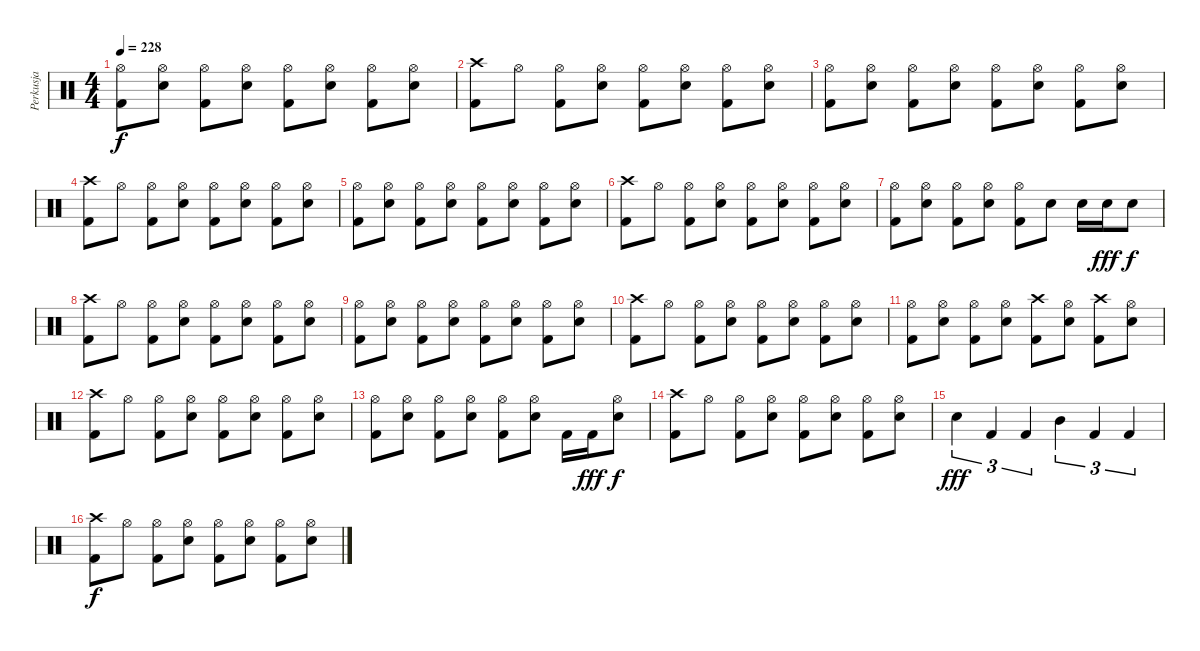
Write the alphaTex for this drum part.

\track ("Perkusja" "Perkusja") {instrument percussion bank 10}
\staff {score}
\articulation defaults
\ts (4 4)
\tempo 228
\clef neutral
\ks c
("Hi-Hat (open)" "Kick (hit) 2").8{dy f} ("Hi-Hat (open)" "Snare (hit) 2").8 ("Hi-Hat (open)" "Kick (hit) 2").8 ("Hi-Hat (open)" "Snare (hit) 2").8 ("Hi-Hat (open)" "Kick (hit) 2").8 ("Hi-Hat (open)" "Snare (hit) 2").8 ("Hi-Hat (open)" "Kick (hit) 2").8 ("Hi-Hat (open)" "Snare (hit) 2").8 |
("Crash high (hit)" "Kick (hit) 2").8 "Hi-Hat (open)".8 ("Hi-Hat (open)" "Kick (hit) 2").8 ("Hi-Hat (open)" "Snare (hit) 2").8 ("Hi-Hat (open)" "Kick (hit) 2").8 ("Hi-Hat (open)" "Snare (hit) 2").8 ("Hi-Hat (open)" "Kick (hit) 2").8 ("Hi-Hat (open)" "Snare (hit) 2").8 |
("Hi-Hat (open)" "Kick (hit) 2").8 ("Hi-Hat (open)" "Snare (hit) 2").8 ("Hi-Hat (open)" "Kick (hit) 2").8 ("Hi-Hat (open)" "Snare (hit) 2").8 ("Hi-Hat (open)" "Kick (hit) 2").8 ("Hi-Hat (open)" "Snare (hit) 2").8 ("Hi-Hat (open)" "Kick (hit) 2").8 ("Hi-Hat (open)" "Snare (hit) 2").8 |
("Crash high (hit)" "Kick (hit) 2").8 "Hi-Hat (open)".8 ("Hi-Hat (open)" "Kick (hit) 2").8 ("Hi-Hat (open)" "Snare (hit) 2").8 ("Hi-Hat (open)" "Kick (hit) 2").8 ("Hi-Hat (open)" "Snare (hit) 2").8 ("Hi-Hat (open)" "Kick (hit) 2").8 ("Hi-Hat (open)" "Snare (hit) 2").8 |
("Hi-Hat (open)" "Kick (hit) 2").8 ("Hi-Hat (open)" "Snare (hit) 2").8 ("Hi-Hat (open)" "Kick (hit) 2").8 ("Hi-Hat (open)" "Snare (hit) 2").8 ("Hi-Hat (open)" "Kick (hit) 2").8 ("Hi-Hat (open)" "Snare (hit) 2").8 ("Hi-Hat (open)" "Kick (hit) 2").8 ("Hi-Hat (open)" "Snare (hit) 2").8 |
("Crash high (hit)" "Kick (hit) 2").8 "Hi-Hat (open)".8 ("Hi-Hat (open)" "Kick (hit) 2").8 ("Hi-Hat (open)" "Snare (hit) 2").8 ("Hi-Hat (open)" "Kick (hit) 2").8 ("Hi-Hat (open)" "Snare (hit) 2").8 ("Hi-Hat (open)" "Kick (hit) 2").8 ("Hi-Hat (open)" "Snare (hit) 2").8 |
("Hi-Hat (open)" "Kick (hit) 2").8 ("Hi-Hat (open)" "Snare (hit) 2").8 ("Hi-Hat (open)" "Kick (hit) 2").8 ("Hi-Hat (open)" "Snare (hit) 2").8 ("Hi-Hat (open)" "Kick (hit) 2").8 "Snare (hit) 2".8 "Snare (hit) 2".16 "Snare (hit) 2".16{dy fff} "Snare (hit) 2".8{dy f} |
("Crash high (hit)" "Kick (hit) 2").8 "Hi-Hat (open)".8 ("Hi-Hat (open)" "Kick (hit) 2").8 ("Hi-Hat (open)" "Snare (hit) 2").8 ("Hi-Hat (open)" "Kick (hit) 2").8 ("Hi-Hat (open)" "Snare (hit) 2").8 ("Hi-Hat (open)" "Kick (hit) 2").8 ("Hi-Hat (open)" "Snare (hit) 2").8 |
("Hi-Hat (open)" "Kick (hit) 2").8 ("Hi-Hat (open)" "Snare (hit) 2").8 ("Hi-Hat (open)" "Kick (hit) 2").8 ("Hi-Hat (open)" "Snare (hit) 2").8 ("Hi-Hat (open)" "Kick (hit) 2").8 ("Hi-Hat (open)" "Snare (hit) 2").8 ("Hi-Hat (open)" "Kick (hit) 2").8 ("Hi-Hat (open)" "Snare (hit) 2").8 |
("Crash high (hit)" "Kick (hit) 2").8 "Hi-Hat (open)".8 ("Hi-Hat (open)" "Kick (hit) 2").8 ("Hi-Hat (open)" "Snare (hit) 2").8 ("Hi-Hat (open)" "Kick (hit) 2").8 ("Hi-Hat (open)" "Snare (hit) 2").8 ("Hi-Hat (open)" "Kick (hit) 2").8 ("Hi-Hat (open)" "Snare (hit) 2").8 |
("Hi-Hat (open)" "Kick (hit) 2").8 ("Hi-Hat (open)" "Snare (hit) 2").8 ("Hi-Hat (open)" "Kick (hit) 2").8 ("Hi-Hat (open)" "Snare (hit) 2").8 ("Crash high (hit)" "Kick (hit) 2").8 ("Hi-Hat (open)" "Snare (hit) 2").8 ("Crash high (hit)" "Kick (hit) 2").8 ("Hi-Hat (open)" "Snare (hit) 2").8 |
("Crash high (hit)" "Kick (hit) 2").8 "Hi-Hat (open)".8 ("Hi-Hat (open)" "Kick (hit) 2").8 ("Hi-Hat (open)" "Snare (hit) 2").8 ("Hi-Hat (open)" "Kick (hit) 2").8 ("Hi-Hat (open)" "Snare (hit) 2").8 ("Hi-Hat (open)" "Kick (hit) 2").8 ("Hi-Hat (open)" "Snare (hit) 2").8 |
("Hi-Hat (open)" "Kick (hit) 2").8 ("Hi-Hat (open)" "Snare (hit) 2").8 ("Hi-Hat (open)" "Kick (hit) 2").8 ("Hi-Hat (open)" "Snare (hit) 2").8 ("Hi-Hat (open)" "Kick (hit) 2").8 ("Hi-Hat (open)" "Snare (hit) 2").8 "Kick (hit) 2".16 "Kick (hit) 2".16{dy fff} ("Hi-Hat (open)" "Snare (hit) 2").8{dy f} |
("Crash high (hit)" "Kick (hit) 2").8 "Hi-Hat (open)".8 ("Hi-Hat (open)" "Kick (hit) 2").8 ("Hi-Hat (open)" "Snare (hit) 2").8 ("Hi-Hat (open)" "Kick (hit) 2").8 ("Hi-Hat (open)" "Snare (hit) 2").8 ("Hi-Hat (open)" "Kick (hit) 2").8 ("Hi-Hat (open)" "Snare (hit) 2").8 |
"Snare (hit) 2".4{tu (3 2) dy fff} "Kick (hit) 2".4{tu (3 2)} "Kick (hit) 2".4{tu (3 2)} "Mid Tom (hit)".4{tu (3 2)} "Kick (hit) 2".4{tu (3 2)} "Kick (hit) 2".4{tu (3 2)} |
("Crash high (hit)" "Kick (hit) 2").8{dy f} "Hi-Hat (open)".8 ("Hi-Hat (open)" "Kick (hit) 2").8 ("Hi-Hat (open)" "Snare (hit) 2").8 ("Hi-Hat (open)" "Kick (hit) 2").8 ("Hi-Hat (open)" "Snare (hit) 2").8 ("Hi-Hat (open)" "Kick (hit) 2").8 ("Hi-Hat (open)" "Snare (hit) 2").8
